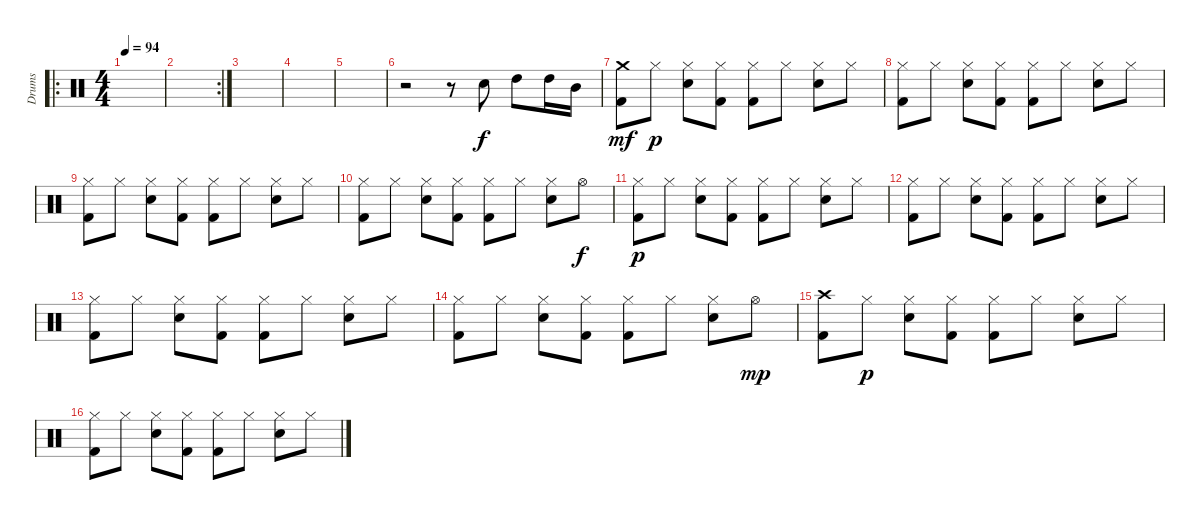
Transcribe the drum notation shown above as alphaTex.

\track ("Drums" "Drums") {instrument percussion}
\staff {score}
\articulation defaults
\ro
\ts (4 4)
\tempo 94
\clef neutral
\ks c
|
\rc 2
|
|
|
|
r.2 r.8 "Snare (hit) 2".8 "High Tom (hit)".8 "High Tom (hit)".16 "Mid Tom (hit)".16 |
("Crash medium (hit)" "Kick (hit) 2").8{dy mf} "Hi-Hat (closed)".8{dy p} ("Hi-Hat (closed)" "Snare (hit) 2").8 ("Hi-Hat (closed)" "Kick (hit) 2").8 ("Hi-Hat (closed)" "Kick (hit) 2").8 "Hi-Hat (closed)".8 ("Hi-Hat (closed)" "Snare (hit) 2").8 "Hi-Hat (closed)".8 |
("Hi-Hat (closed)" "Kick (hit) 2").8 "Hi-Hat (closed)".8 ("Hi-Hat (closed)" "Snare (hit) 2").8 ("Hi-Hat (closed)" "Kick (hit) 2").8 ("Hi-Hat (closed)" "Kick (hit) 2").8 "Hi-Hat (closed)".8 ("Hi-Hat (closed)" "Snare (hit) 2").8 "Hi-Hat (closed)".8 |
("Hi-Hat (closed)" "Kick (hit) 2").8 "Hi-Hat (closed)".8 ("Hi-Hat (closed)" "Snare (hit) 2").8 ("Hi-Hat (closed)" "Kick (hit) 2").8 ("Hi-Hat (closed)" "Kick (hit) 2").8 "Hi-Hat (closed)".8 ("Hi-Hat (closed)" "Snare (hit) 2").8 "Hi-Hat (closed)".8 |
("Hi-Hat (closed)" "Kick (hit) 2").8 "Hi-Hat (closed)".8 ("Hi-Hat (closed)" "Snare (hit) 2").8 ("Hi-Hat (closed)" "Kick (hit) 2").8 ("Hi-Hat (closed)" "Kick (hit) 2").8 "Hi-Hat (closed)".8 ("Hi-Hat (closed)" "Snare (hit) 2").8 "Hi-Hat (open)".8{dy f} |
("Hi-Hat (closed)" "Kick (hit) 2").8{dy p} "Hi-Hat (closed)".8 ("Hi-Hat (closed)" "Snare (hit) 2").8 ("Hi-Hat (closed)" "Kick (hit) 2").8 ("Hi-Hat (closed)" "Kick (hit) 2").8 "Hi-Hat (closed)".8 ("Hi-Hat (closed)" "Snare (hit) 2").8 "Hi-Hat (closed)".8 |
("Hi-Hat (closed)" "Kick (hit) 2").8 "Hi-Hat (closed)".8 ("Hi-Hat (closed)" "Snare (hit) 2").8 ("Hi-Hat (closed)" "Kick (hit) 2").8 ("Hi-Hat (closed)" "Kick (hit) 2").8 "Hi-Hat (closed)".8 ("Hi-Hat (closed)" "Snare (hit) 2").8 "Hi-Hat (closed)".8 |
("Hi-Hat (closed)" "Kick (hit) 2").8 "Hi-Hat (closed)".8 ("Hi-Hat (closed)" "Snare (hit) 2").8 ("Hi-Hat (closed)" "Kick (hit) 2").8 ("Hi-Hat (closed)" "Kick (hit) 2").8 "Hi-Hat (closed)".8 ("Hi-Hat (closed)" "Snare (hit) 2").8 "Hi-Hat (closed)".8 |
("Hi-Hat (closed)" "Kick (hit) 2").8 "Hi-Hat (closed)".8 ("Hi-Hat (closed)" "Snare (hit) 2").8 ("Hi-Hat (closed)" "Kick (hit) 2").8 ("Hi-Hat (closed)" "Kick (hit) 2").8 "Hi-Hat (closed)".8 ("Hi-Hat (closed)" "Snare (hit) 2").8 "Hi-Hat (open)".8{dy mp} |
("Crash high (hit)" "Kick (hit) 2").8 "Hi-Hat (closed)".8{dy p} ("Hi-Hat (closed)" "Snare (hit) 2").8 ("Hi-Hat (closed)" "Kick (hit) 2").8 ("Hi-Hat (closed)" "Kick (hit) 2").8 "Hi-Hat (closed)".8 ("Hi-Hat (closed)" "Snare (hit) 2").8 "Hi-Hat (closed)".8 |
("Hi-Hat (closed)" "Kick (hit) 2").8 "Hi-Hat (closed)".8 ("Hi-Hat (closed)" "Snare (hit) 2").8 ("Hi-Hat (closed)" "Kick (hit) 2").8 ("Hi-Hat (closed)" "Kick (hit) 2").8 "Hi-Hat (closed)".8 ("Hi-Hat (closed)" "Snare (hit) 2").8 "Hi-Hat (closed)".8
